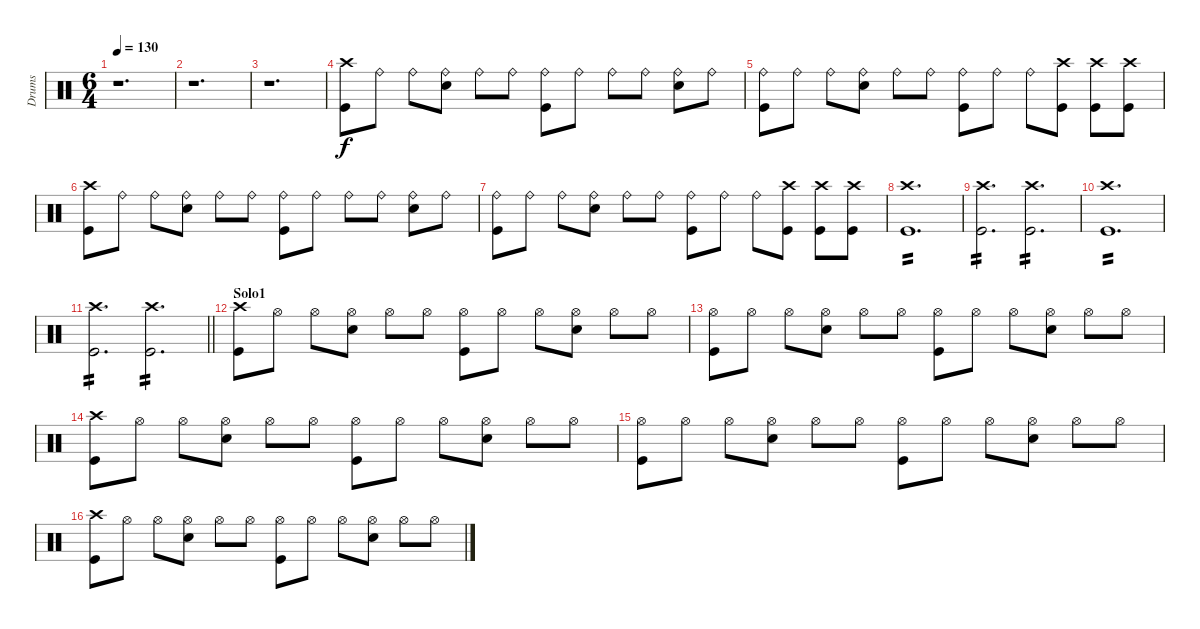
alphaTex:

\track ("Drums" "Drums") {instrument percussion}
\staff {score}
\articulation defaults
\ts (6 4)
\tempo 130
\clef neutral
\ks c
r.1{d dy f} |
r.1{d} |
r.1{d} |
("Crash high (hit)" "Kick (hit)").8 "Ride (bell)".8 "Ride (bell)".8 ("Ride (bell)" "Electric Snare (hit)").8 "Ride (bell)".8 "Ride (bell)".8 ("Ride (bell)" "Kick (hit)").8 "Ride (bell)".8 "Ride (bell)".8 "Ride (bell)".8 ("Ride (bell)" "Electric Snare (hit)").8 "Ride (bell)".8 |
("Ride (bell)" "Kick (hit)").8 "Ride (bell)".8 "Ride (bell)".8 ("Ride (bell)" "Electric Snare (hit)").8 "Ride (bell)".8 "Ride (bell)".8 ("Ride (bell)" "Kick (hit)").8 "Ride (bell)".8 "Ride (bell)".8 ("Crash high (hit)" "Kick (hit)").8 ("Crash high (hit)" "Kick (hit)").8 ("Crash high (hit)" "Kick (hit)").8 |
("Crash high (hit)" "Kick (hit)").8 "Ride (bell)".8 "Ride (bell)".8 ("Ride (bell)" "Electric Snare (hit)").8 "Ride (bell)".8 "Ride (bell)".8 ("Ride (bell)" "Kick (hit)").8 "Ride (bell)".8 "Ride (bell)".8 "Ride (bell)".8 ("Ride (bell)" "Electric Snare (hit)").8 "Ride (bell)".8 |
("Ride (bell)" "Kick (hit)").8 "Ride (bell)".8 "Ride (bell)".8 ("Ride (bell)" "Electric Snare (hit)").8 "Ride (bell)".8 "Ride (bell)".8 ("Ride (bell)" "Kick (hit)").8 "Ride (bell)".8 "Ride (bell)".8 ("Crash high (hit)" "Kick (hit)").8 ("Crash high (hit)" "Kick (hit)").8 ("Crash high (hit)" "Kick (hit)").8 |
("Crash high (hit)" "Kick (hit)").1{d tp 2} |
("Crash high (hit)" "Kick (hit)").2{d tp 2} ("Crash high (hit)" "Kick (hit)").2{d tp 2} |
("Crash high (hit)" "Kick (hit)").1{d tp 2} |
\barLineRight lightlight
("Crash high (hit)" "Kick (hit)").2{d tp 2} ("Crash high (hit)" "Kick (hit)").2{d tp 2} |
\section ("" "Solo1")
("Crash high (hit)" "Kick (hit)").8 "Hi-Hat (open)".8 "Hi-Hat (open)".8 ("Hi-Hat (open)" "Electric Snare (hit)").8 "Hi-Hat (open)".8 "Hi-Hat (open)".8 ("Hi-Hat (open)" "Kick (hit)").8 "Hi-Hat (open)".8 "Hi-Hat (open)".8 ("Hi-Hat (open)" "Electric Snare (hit)").8 "Hi-Hat (open)".8 "Hi-Hat (open)".8 |
("Hi-Hat (open)" "Kick (hit)").8 "Hi-Hat (open)".8 "Hi-Hat (open)".8 ("Hi-Hat (open)" "Electric Snare (hit)").8 "Hi-Hat (open)".8 "Hi-Hat (open)".8 ("Hi-Hat (open)" "Kick (hit)").8 "Hi-Hat (open)".8 "Hi-Hat (open)".8 ("Hi-Hat (open)" "Electric Snare (hit)").8 "Hi-Hat (open)".8 "Hi-Hat (open)".8 |
("Crash high (hit)" "Kick (hit)").8 "Hi-Hat (open)".8 "Hi-Hat (open)".8 ("Hi-Hat (open)" "Electric Snare (hit)").8 "Hi-Hat (open)".8 "Hi-Hat (open)".8 ("Hi-Hat (open)" "Kick (hit)").8 "Hi-Hat (open)".8 "Hi-Hat (open)".8 ("Hi-Hat (open)" "Electric Snare (hit)").8 "Hi-Hat (open)".8 "Hi-Hat (open)".8 |
("Hi-Hat (open)" "Kick (hit)").8 "Hi-Hat (open)".8 "Hi-Hat (open)".8 ("Hi-Hat (open)" "Electric Snare (hit)").8 "Hi-Hat (open)".8 "Hi-Hat (open)".8 ("Hi-Hat (open)" "Kick (hit)").8 "Hi-Hat (open)".8 "Hi-Hat (open)".8 ("Hi-Hat (open)" "Electric Snare (hit)").8 "Hi-Hat (open)".8 "Hi-Hat (open)".8 |
("Crash high (hit)" "Kick (hit)").8 "Hi-Hat (open)".8 "Hi-Hat (open)".8 ("Hi-Hat (open)" "Electric Snare (hit)").8 "Hi-Hat (open)".8 "Hi-Hat (open)".8 ("Hi-Hat (open)" "Kick (hit)").8 "Hi-Hat (open)".8 "Hi-Hat (open)".8 ("Hi-Hat (open)" "Electric Snare (hit)").8 "Hi-Hat (open)".8 "Hi-Hat (open)".8
